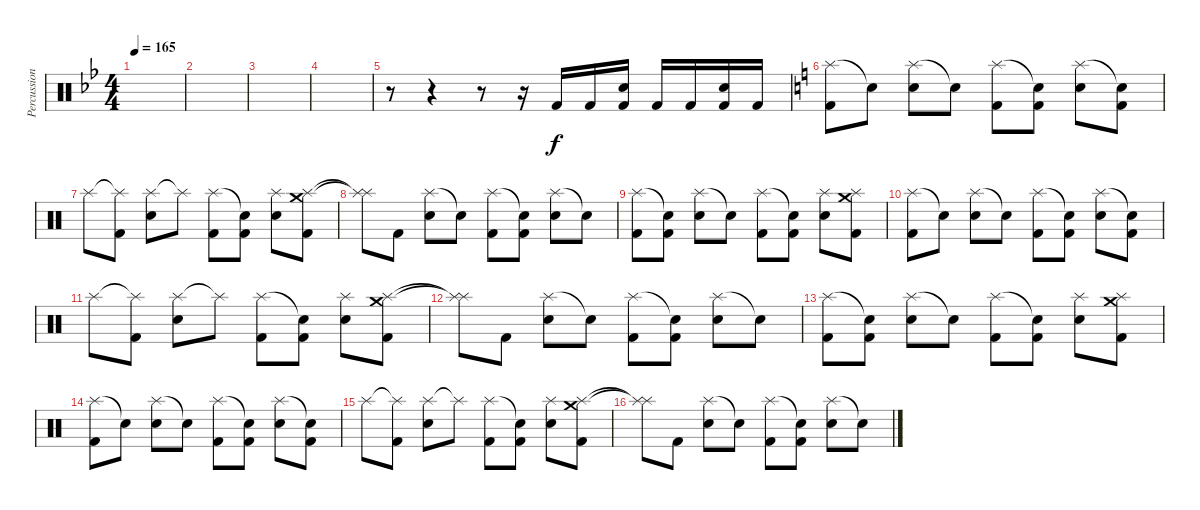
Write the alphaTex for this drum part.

\track ("Percussion" "Percussion") {instrument percussion}
\staff {score}
\articulation defaults
\ts (4 4)
\tempo 165
\clef neutral
\ks bb
|
|
|
|
r.8 r.4 r.8 r.16 "Kick (hit) 2".16 "Kick (hit) 2".16 ("Electric Snare (hit)" "Kick (hit) 2").16 "Kick (hit) 2".16 "Kick (hit) 2".16 ("Electric Snare (hit)" "Kick (hit) 2").16 "Kick (hit) 2".16 |
\ks c
("Splash (hit)" "Kick (hit) 2").8 "Snare (hit)"{t}.8 ("Splash (hit)" "Electric Snare (hit)").8 "Snare (hit)"{t}.8 ("Splash (hit)" "Kick (hit) 2").8 ("Snare (hit)"{t} "Kick (hit) 2").8 ("Splash (hit)" "Electric Snare (hit)").8 ("Snare (hit)"{t} "Kick (hit) 2").8 |
"Splash (hit)".8 ("Splash (hit)"{t} "Kick (hit) 2").8 ("Splash (hit)" "Electric Snare (hit)").8 "Splash (hit)"{t}.8 ("Splash (hit)" "Kick (hit) 2").8 ("Snare (hit)"{t} "Kick (hit) 2").8 ("Splash (hit)" "Electric Snare (hit)").8 ("Crash medium (hit)" "Splash (hit)" "Kick (hit) 2").8 |
("Splash (hit)"{t} "Splash (hit)"{t}).8 "Kick (hit) 2".8 ("Splash (hit)" "Electric Snare (hit)").8 "Snare (hit)"{t}.8 ("Splash (hit)" "Kick (hit) 2").8 ("Snare (hit)"{t} "Kick (hit) 2").8 ("Splash (hit)" "Electric Snare (hit)").8 "Snare (hit)"{t}.8 |
("Splash (hit)" "Kick (hit) 2").8 ("Snare (hit)"{t} "Kick (hit) 2").8 ("Splash (hit)" "Electric Snare (hit)").8 "Snare (hit)"{t}.8 ("Splash (hit)" "Kick (hit) 2").8 ("Snare (hit)"{t} "Kick (hit) 2").8 ("Splash (hit)" "Electric Snare (hit)").8 ("Crash medium (hit)" "Splash (hit)" "Kick (hit) 2").8 |
("Splash (hit)" "Kick (hit) 2").8 "Snare (hit)"{t}.8 ("Splash (hit)" "Electric Snare (hit)").8 "Snare (hit)"{t}.8 ("Splash (hit)" "Kick (hit) 2").8 ("Snare (hit)"{t} "Kick (hit) 2").8 ("Splash (hit)" "Electric Snare (hit)").8 ("Snare (hit)"{t} "Kick (hit) 2").8 |
"Splash (hit)".8 ("Splash (hit)"{t} "Kick (hit) 2").8 ("Splash (hit)" "Electric Snare (hit)").8 "Splash (hit)"{t}.8 ("Splash (hit)" "Kick (hit) 2").8 ("Snare (hit)"{t} "Kick (hit) 2").8 ("Splash (hit)" "Electric Snare (hit)").8 ("Crash medium (hit)" "Splash (hit)" "Kick (hit) 2").8 |
("Splash (hit)"{t} "Splash (hit)"{t}).8 "Kick (hit) 2".8 ("Splash (hit)" "Electric Snare (hit)").8 "Snare (hit)"{t}.8 ("Splash (hit)" "Kick (hit) 2").8 ("Snare (hit)"{t} "Kick (hit) 2").8 ("Splash (hit)" "Electric Snare (hit)").8 "Snare (hit)"{t}.8 |
("Splash (hit)" "Kick (hit) 2").8 ("Snare (hit)"{t} "Kick (hit) 2").8 ("Splash (hit)" "Electric Snare (hit)").8 "Snare (hit)"{t}.8 ("Splash (hit)" "Kick (hit) 2").8 ("Snare (hit)"{t} "Kick (hit) 2").8 ("Splash (hit)" "Electric Snare (hit)").8 ("Crash medium (hit)" "Splash (hit)" "Kick (hit) 2").8 |
("Splash (hit)" "Kick (hit) 2").8 "Snare (hit)"{t}.8 ("Splash (hit)" "Electric Snare (hit)").8 "Snare (hit)"{t}.8 ("Splash (hit)" "Kick (hit) 2").8 ("Snare (hit)"{t} "Kick (hit) 2").8 ("Splash (hit)" "Electric Snare (hit)").8 ("Snare (hit)"{t} "Kick (hit) 2").8 |
"Splash (hit)".8 ("Splash (hit)"{t} "Kick (hit) 2").8 ("Splash (hit)" "Electric Snare (hit)").8 "Splash (hit)"{t}.8 ("Splash (hit)" "Kick (hit) 2").8 ("Snare (hit)"{t} "Kick (hit) 2").8 ("Splash (hit)" "Electric Snare (hit)").8 ("Crash medium (hit)" "Splash (hit)" "Kick (hit) 2").8 |
("Splash (hit)"{t} "Splash (hit)"{t}).8 "Kick (hit) 2".8 ("Splash (hit)" "Electric Snare (hit)").8 "Snare (hit)"{t}.8 ("Splash (hit)" "Kick (hit) 2").8 ("Snare (hit)"{t} "Kick (hit) 2").8 ("Splash (hit)" "Electric Snare (hit)").8 "Snare (hit)"{t}.8
